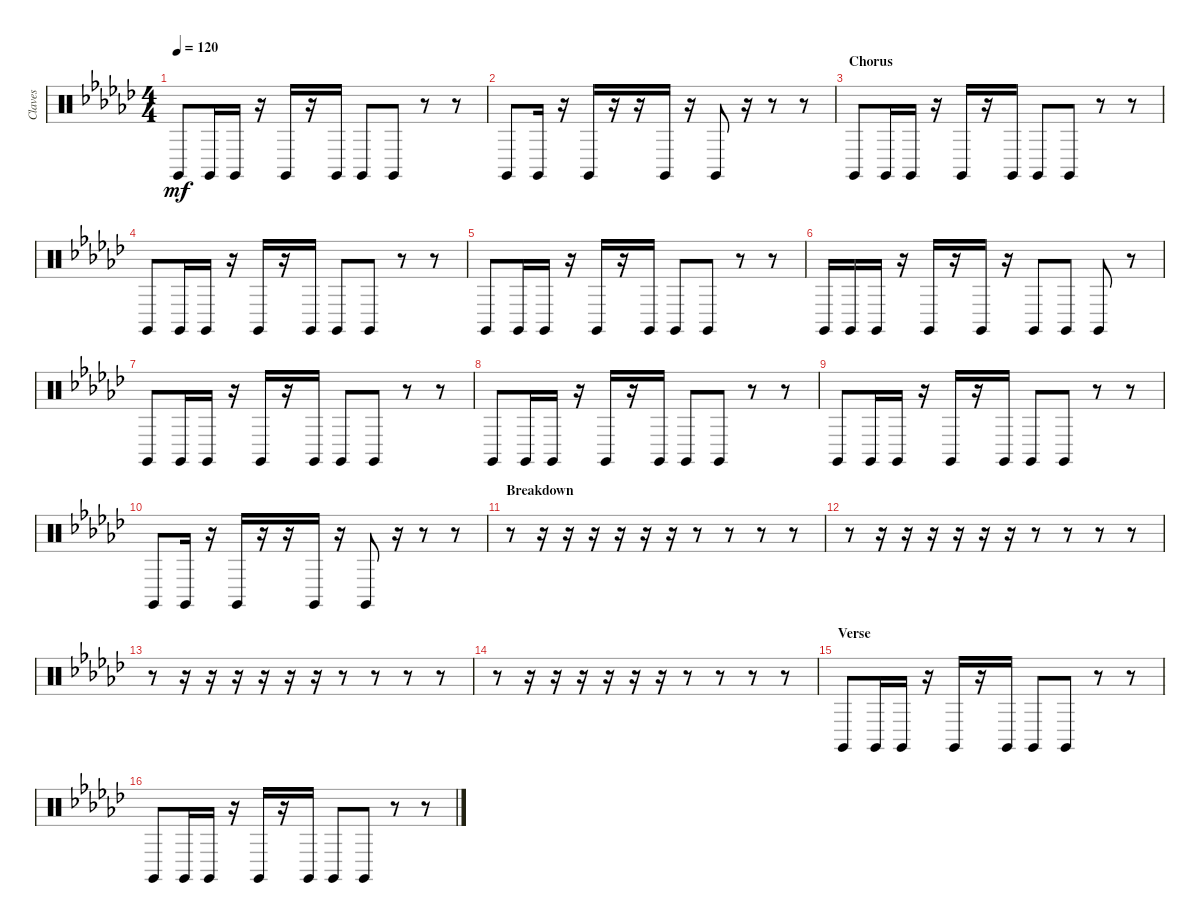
\track ("Claves" "Claves") {instrument percussion}
\staff {score}
\articulation defaults
\ts (4 4)
\tempo 120
\clef neutral
\ks ebminor "Claves (hit)".8{dy mf} "Claves (hit)".16 "Claves (hit)".16
r.16 "Claves (hit)".16 r.16 "Claves (hit)".16 "Claves (hit)".8 "Claves (hit)".8 r.8 r.8 |
"Claves (hit)".8 "Claves (hit)".16 r.16 "Claves (hit)".16 r.16 r.16 "Claves (hit)".16 r.16 "Claves (hit)".8 r.16 r.8 r.8 |
\section ("" "Chorus")
"Claves (hit)".8 "Claves (hit)".16 "Claves (hit)".16 r.16 "Claves (hit)".16 r.16 "Claves (hit)".16 "Claves (hit)".8 "Claves (hit)".8 r.8 r.8 |
"Claves (hit)".8 "Claves (hit)".16 "Claves (hit)".16 r.16 "Claves (hit)".16 r.16 "Claves (hit)".16 "Claves (hit)".8 "Claves (hit)".8 r.8 r.8 |
"Claves (hit)".8 "Claves (hit)".16 "Claves (hit)".16 r.16 "Claves (hit)".16 r.16 "Claves (hit)".16 "Claves (hit)".8 "Claves (hit)".8 r.8 r.8 |
"Claves (hit)".16 "Claves (hit)".16 "Claves (hit)".16 r.16 "Claves (hit)".16 r.16 "Claves (hit)".16 r.16 "Claves (hit)".8 "Claves (hit)".8 "Claves (hit)".8 r.8 |
"Claves (hit)".8 "Claves (hit)".16 "Claves (hit)".16 r.16 "Claves (hit)".16 r.16 "Claves (hit)".16 "Claves (hit)".8 "Claves (hit)".8 r.8 r.8 |
"Claves (hit)".8 "Claves (hit)".16 "Claves (hit)".16 r.16 "Claves (hit)".16 r.16 "Claves (hit)".16 "Claves (hit)".8 "Claves (hit)".8 r.8 r.8 |
"Claves (hit)".8 "Claves (hit)".16 "Claves (hit)".16 r.16 "Claves (hit)".16 r.16 "Claves (hit)".16 "Claves (hit)".8 "Claves (hit)".8 r.8 r.8 |
"Claves (hit)".8 "Claves (hit)".16 r.16 "Claves (hit)".16 r.16 r.16 "Claves (hit)".16 r.16 "Claves (hit)".8 r.16 r.8 r.8 |
\section ("" "Breakdown")
r.8 r.16 r.16 r.16 r.16 r.16 r.16 r.8 r.8 r.8 r.8 |
r.8 r.16 r.16 r.16 r.16 r.16 r.16 r.8 r.8 r.8 r.8 |
r.8 r.16 r.16 r.16 r.16 r.16 r.16 r.8 r.8 r.8 r.8 |
r.8 r.16 r.16 r.16 r.16 r.16 r.16 r.8 r.8 r.8 r.8 |
\section ("" "Verse")
"Claves (hit)".8 "Claves (hit)".16 "Claves (hit)".16 r.16 "Claves (hit)".16 r.16 "Claves (hit)".16 "Claves (hit)".8 "Claves (hit)".8 r.8 r.8 |
"Claves (hit)".8 "Claves (hit)".16 "Claves (hit)".16 r.16 "Claves (hit)".16 r.16 "Claves (hit)".16 "Claves (hit)".8 "Claves (hit)".8 r.8 r.8
